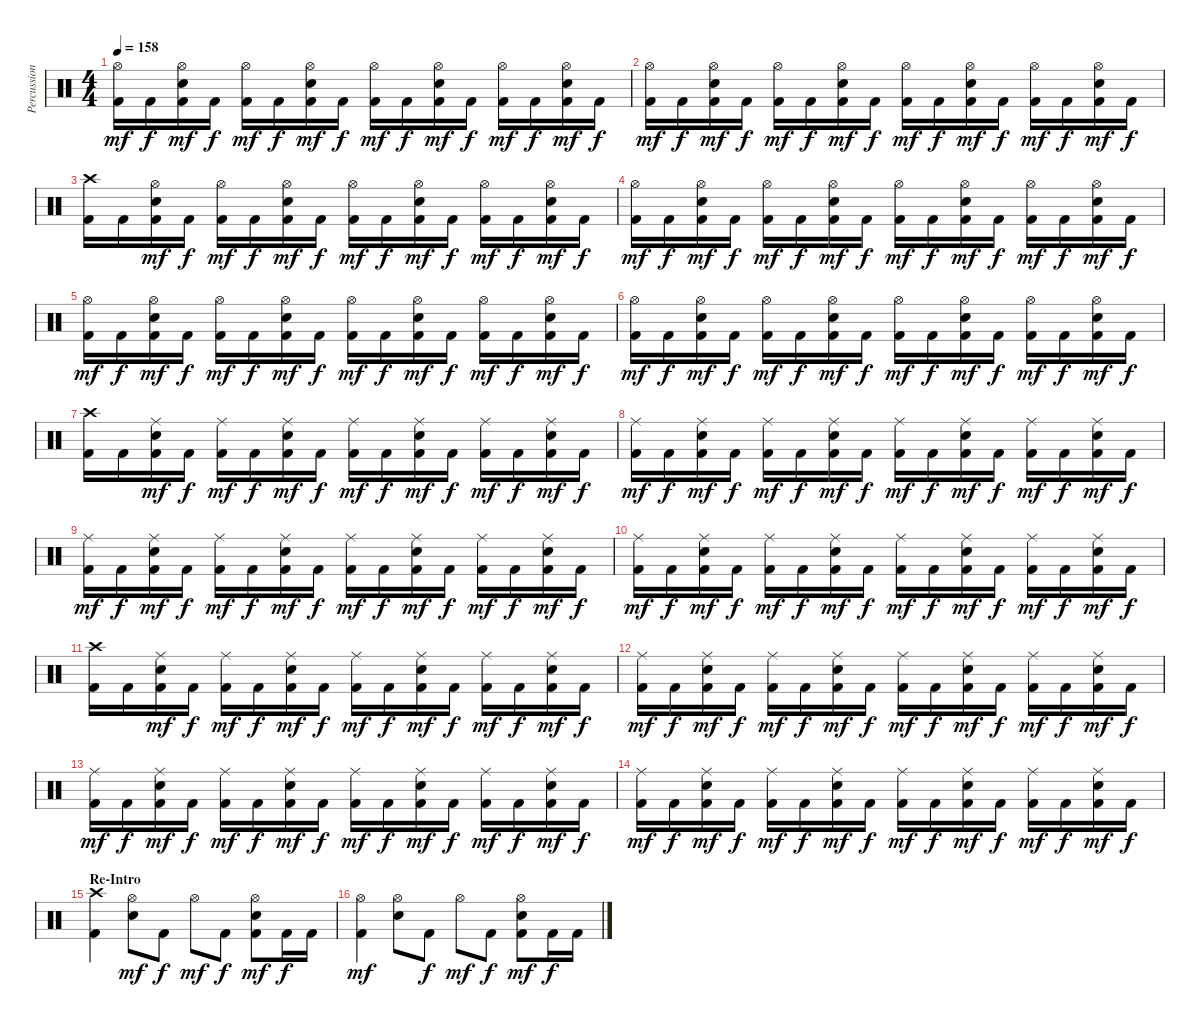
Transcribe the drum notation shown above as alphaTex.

\track ("Percussion" "Percussion") {instrument percussion}
\staff {score}
\articulation defaults
\ts (4 4)
\tempo 158
\clef neutral
\ks c
("Hi-Hat (open)" "Kick (hit) 2").16{dy mf} "Kick (hit) 2".16{dy f} ("Hi-Hat (open)" "Electric Snare (hit)" "Kick (hit) 2").16{dy mf} "Kick (hit) 2".16{dy f} ("Hi-Hat (open)" "Kick (hit) 2").16{dy mf} "Kick (hit) 2".16{dy f} ("Hi-Hat (open)" "Electric Snare (hit)" "Kick (hit) 2").16{dy mf} "Kick (hit) 2".16{dy f} ("Hi-Hat (open)" "Kick (hit) 2").16{dy mf} "Kick (hit) 2".16{dy f} ("Hi-Hat (open)" "Electric Snare (hit)" "Kick (hit) 2").16{dy mf} "Kick (hit) 2".16{dy f} ("Hi-Hat (open)" "Kick (hit) 2").16{dy mf} "Kick (hit) 2".16{dy f} ("Hi-Hat (open)" "Electric Snare (hit)" "Kick (hit) 2").16{dy mf} "Kick (hit) 2".16{dy f} |
("Hi-Hat (open)" "Kick (hit) 2").16{dy mf} "Kick (hit) 2".16{dy f} ("Hi-Hat (open)" "Electric Snare (hit)" "Kick (hit) 2").16{dy mf} "Kick (hit) 2".16{dy f} ("Hi-Hat (open)" "Kick (hit) 2").16{dy mf} "Kick (hit) 2".16{dy f} ("Hi-Hat (open)" "Electric Snare (hit)" "Kick (hit) 2").16{dy mf} "Kick (hit) 2".16{dy f} ("Hi-Hat (open)" "Kick (hit) 2").16{dy mf} "Kick (hit) 2".16{dy f} ("Hi-Hat (open)" "Electric Snare (hit)" "Kick (hit) 2").16{dy mf} "Kick (hit) 2".16{dy f} ("Hi-Hat (open)" "Kick (hit) 2").16{dy mf} "Kick (hit) 2".16{dy f} ("Hi-Hat (open)" "Electric Snare (hit)" "Kick (hit) 2").16{dy mf} "Kick (hit) 2".16{dy f} |
("Crash high (hit)" "Kick (hit) 2").16 "Kick (hit) 2".16 ("Hi-Hat (open)" "Electric Snare (hit)" "Kick (hit) 2").16{dy mf} "Kick (hit) 2".16{dy f} ("Hi-Hat (open)" "Kick (hit) 2").16{dy mf} "Kick (hit) 2".16{dy f} ("Hi-Hat (open)" "Electric Snare (hit)" "Kick (hit) 2").16{dy mf} "Kick (hit) 2".16{dy f} ("Hi-Hat (open)" "Kick (hit) 2").16{dy mf} "Kick (hit) 2".16{dy f} ("Hi-Hat (open)" "Electric Snare (hit)" "Kick (hit) 2").16{dy mf} "Kick (hit) 2".16{dy f} ("Hi-Hat (open)" "Kick (hit) 2").16{dy mf} "Kick (hit) 2".16{dy f} ("Hi-Hat (open)" "Electric Snare (hit)" "Kick (hit) 2").16{dy mf} "Kick (hit) 2".16{dy f} |
("Hi-Hat (open)" "Kick (hit) 2").16{dy mf} "Kick (hit) 2".16{dy f} ("Hi-Hat (open)" "Electric Snare (hit)" "Kick (hit) 2").16{dy mf} "Kick (hit) 2".16{dy f} ("Hi-Hat (open)" "Kick (hit) 2").16{dy mf} "Kick (hit) 2".16{dy f} ("Hi-Hat (open)" "Electric Snare (hit)" "Kick (hit) 2").16{dy mf} "Kick (hit) 2".16{dy f} ("Hi-Hat (open)" "Kick (hit) 2").16{dy mf} "Kick (hit) 2".16{dy f} ("Hi-Hat (open)" "Electric Snare (hit)" "Kick (hit) 2").16{dy mf} "Kick (hit) 2".16{dy f} ("Hi-Hat (open)" "Kick (hit) 2").16{dy mf} "Kick (hit) 2".16{dy f} ("Hi-Hat (open)" "Electric Snare (hit)" "Kick (hit) 2").16{dy mf} "Kick (hit) 2".16{dy f} |
("Hi-Hat (open)" "Kick (hit) 2").16{dy mf} "Kick (hit) 2".16{dy f} ("Hi-Hat (open)" "Electric Snare (hit)" "Kick (hit) 2").16{dy mf} "Kick (hit) 2".16{dy f} ("Hi-Hat (open)" "Kick (hit) 2").16{dy mf} "Kick (hit) 2".16{dy f} ("Hi-Hat (open)" "Electric Snare (hit)" "Kick (hit) 2").16{dy mf} "Kick (hit) 2".16{dy f} ("Hi-Hat (open)" "Kick (hit) 2").16{dy mf} "Kick (hit) 2".16{dy f} ("Hi-Hat (open)" "Electric Snare (hit)" "Kick (hit) 2").16{dy mf} "Kick (hit) 2".16{dy f} ("Hi-Hat (open)" "Kick (hit) 2").16{dy mf} "Kick (hit) 2".16{dy f} ("Hi-Hat (open)" "Electric Snare (hit)" "Kick (hit) 2").16{dy mf} "Kick (hit) 2".16{dy f} |
("Hi-Hat (open)" "Kick (hit) 2").16{dy mf} "Kick (hit) 2".16{dy f} ("Hi-Hat (open)" "Electric Snare (hit)" "Kick (hit) 2").16{dy mf} "Kick (hit) 2".16{dy f} ("Hi-Hat (open)" "Kick (hit) 2").16{dy mf} "Kick (hit) 2".16{dy f} ("Hi-Hat (open)" "Electric Snare (hit)" "Kick (hit) 2").16{dy mf} "Kick (hit) 2".16{dy f} ("Hi-Hat (open)" "Kick (hit) 2").16{dy mf} "Kick (hit) 2".16{dy f} ("Hi-Hat (open)" "Electric Snare (hit)" "Kick (hit) 2").16{dy mf} "Kick (hit) 2".16{dy f} ("Hi-Hat (open)" "Kick (hit) 2").16{dy mf} "Kick (hit) 2".16{dy f} ("Hi-Hat (open)" "Electric Snare (hit)" "Kick (hit) 2").16{dy mf} "Kick (hit) 2".16{dy f} |
("Crash high (hit)" "Kick (hit) 2").16 "Kick (hit) 2".16 ("Ride (middle)" "Electric Snare (hit)" "Kick (hit) 2").16{dy mf} "Kick (hit) 2".16{dy f} ("Ride (middle)" "Kick (hit) 2").16{dy mf} "Kick (hit) 2".16{dy f} ("Ride (middle)" "Electric Snare (hit)" "Kick (hit) 2").16{dy mf} "Kick (hit) 2".16{dy f} ("Ride (middle)" "Kick (hit) 2").16{dy mf} "Kick (hit) 2".16{dy f} ("Ride (middle)" "Electric Snare (hit)" "Kick (hit) 2").16{dy mf} "Kick (hit) 2".16{dy f} ("Ride (middle)" "Kick (hit) 2").16{dy mf} "Kick (hit) 2".16{dy f} ("Ride (middle)" "Electric Snare (hit)" "Kick (hit) 2").16{dy mf} "Kick (hit) 2".16{dy f} |
("Ride (middle)" "Kick (hit) 2").16{dy mf} "Kick (hit) 2".16{dy f} ("Ride (middle)" "Electric Snare (hit)" "Kick (hit) 2").16{dy mf} "Kick (hit) 2".16{dy f} ("Ride (middle)" "Kick (hit) 2").16{dy mf} "Kick (hit) 2".16{dy f} ("Ride (middle)" "Electric Snare (hit)" "Kick (hit) 2").16{dy mf} "Kick (hit) 2".16{dy f} ("Ride (middle)" "Kick (hit) 2").16{dy mf} "Kick (hit) 2".16{dy f} ("Ride (middle)" "Electric Snare (hit)" "Kick (hit) 2").16{dy mf} "Kick (hit) 2".16{dy f} ("Ride (middle)" "Kick (hit) 2").16{dy mf} "Kick (hit) 2".16{dy f} ("Ride (middle)" "Electric Snare (hit)" "Kick (hit) 2").16{dy mf} "Kick (hit) 2".16{dy f} |
("Ride (middle)" "Kick (hit) 2").16{dy mf} "Kick (hit) 2".16{dy f} ("Ride (middle)" "Electric Snare (hit)" "Kick (hit) 2").16{dy mf} "Kick (hit) 2".16{dy f} ("Ride (middle)" "Kick (hit) 2").16{dy mf} "Kick (hit) 2".16{dy f} ("Ride (middle)" "Electric Snare (hit)" "Kick (hit) 2").16{dy mf} "Kick (hit) 2".16{dy f} ("Ride (middle)" "Kick (hit) 2").16{dy mf} "Kick (hit) 2".16{dy f} ("Ride (middle)" "Electric Snare (hit)" "Kick (hit) 2").16{dy mf} "Kick (hit) 2".16{dy f} ("Ride (middle)" "Kick (hit) 2").16{dy mf} "Kick (hit) 2".16{dy f} ("Ride (middle)" "Electric Snare (hit)" "Kick (hit) 2").16{dy mf} "Kick (hit) 2".16{dy f} |
("Ride (middle)" "Kick (hit) 2").16{dy mf} "Kick (hit) 2".16{dy f} ("Ride (middle)" "Electric Snare (hit)" "Kick (hit) 2").16{dy mf} "Kick (hit) 2".16{dy f} ("Ride (middle)" "Kick (hit) 2").16{dy mf} "Kick (hit) 2".16{dy f} ("Ride (middle)" "Electric Snare (hit)" "Kick (hit) 2").16{dy mf} "Kick (hit) 2".16{dy f} ("Ride (middle)" "Kick (hit) 2").16{dy mf} "Kick (hit) 2".16{dy f} ("Ride (middle)" "Electric Snare (hit)" "Kick (hit) 2").16{dy mf} "Kick (hit) 2".16{dy f} ("Ride (middle)" "Kick (hit) 2").16{dy mf} "Kick (hit) 2".16{dy f} ("Ride (middle)" "Electric Snare (hit)" "Kick (hit) 2").16{dy mf} "Kick (hit) 2".16{dy f} |
("Crash high (hit)" "Kick (hit) 2").16 "Kick (hit) 2".16 ("Ride (middle)" "Electric Snare (hit)" "Kick (hit) 2").16{dy mf} "Kick (hit) 2".16{dy f} ("Ride (middle)" "Kick (hit) 2").16{dy mf} "Kick (hit) 2".16{dy f} ("Ride (middle)" "Electric Snare (hit)" "Kick (hit) 2").16{dy mf} "Kick (hit) 2".16{dy f} ("Ride (middle)" "Kick (hit) 2").16{dy mf} "Kick (hit) 2".16{dy f} ("Ride (middle)" "Electric Snare (hit)" "Kick (hit) 2").16{dy mf} "Kick (hit) 2".16{dy f} ("Ride (middle)" "Kick (hit) 2").16{dy mf} "Kick (hit) 2".16{dy f} ("Ride (middle)" "Electric Snare (hit)" "Kick (hit) 2").16{dy mf} "Kick (hit) 2".16{dy f} |
("Ride (middle)" "Kick (hit) 2").16{dy mf} "Kick (hit) 2".16{dy f} ("Ride (middle)" "Electric Snare (hit)" "Kick (hit) 2").16{dy mf} "Kick (hit) 2".16{dy f} ("Ride (middle)" "Kick (hit) 2").16{dy mf} "Kick (hit) 2".16{dy f} ("Ride (middle)" "Electric Snare (hit)" "Kick (hit) 2").16{dy mf} "Kick (hit) 2".16{dy f} ("Ride (middle)" "Kick (hit) 2").16{dy mf} "Kick (hit) 2".16{dy f} ("Ride (middle)" "Electric Snare (hit)" "Kick (hit) 2").16{dy mf} "Kick (hit) 2".16{dy f} ("Ride (middle)" "Kick (hit) 2").16{dy mf} "Kick (hit) 2".16{dy f} ("Ride (middle)" "Electric Snare (hit)" "Kick (hit) 2").16{dy mf} "Kick (hit) 2".16{dy f} |
("Ride (middle)" "Kick (hit) 2").16{dy mf} "Kick (hit) 2".16{dy f} ("Ride (middle)" "Electric Snare (hit)" "Kick (hit) 2").16{dy mf} "Kick (hit) 2".16{dy f} ("Ride (middle)" "Kick (hit) 2").16{dy mf} "Kick (hit) 2".16{dy f} ("Ride (middle)" "Electric Snare (hit)" "Kick (hit) 2").16{dy mf} "Kick (hit) 2".16{dy f} ("Ride (middle)" "Kick (hit) 2").16{dy mf} "Kick (hit) 2".16{dy f} ("Ride (middle)" "Electric Snare (hit)" "Kick (hit) 2").16{dy mf} "Kick (hit) 2".16{dy f} ("Ride (middle)" "Kick (hit) 2").16{dy mf} "Kick (hit) 2".16{dy f} ("Ride (middle)" "Electric Snare (hit)" "Kick (hit) 2").16{dy mf} "Kick (hit) 2".16{dy f} |
("Ride (middle)" "Kick (hit) 2").16{dy mf} "Kick (hit) 2".16{dy f} ("Ride (middle)" "Electric Snare (hit)" "Kick (hit) 2").16{dy mf} "Kick (hit) 2".16{dy f} ("Ride (middle)" "Kick (hit) 2").16{dy mf} "Kick (hit) 2".16{dy f} ("Ride (middle)" "Electric Snare (hit)" "Kick (hit) 2").16{dy mf} "Kick (hit) 2".16{dy f} ("Ride (middle)" "Kick (hit) 2").16{dy mf} "Kick (hit) 2".16{dy f} ("Ride (middle)" "Electric Snare (hit)" "Kick (hit) 2").16{dy mf} "Kick (hit) 2".16{dy f} ("Ride (middle)" "Kick (hit) 2").16{dy mf} "Kick (hit) 2".16{dy f} ("Ride (middle)" "Electric Snare (hit)" "Kick (hit) 2").16{dy mf} "Kick (hit) 2".16{dy f} |
\section ("" "Re-Intro")
("Crash high (hit)" "Kick (hit) 2").4 ("Hi-Hat (open)" "Electric Snare (hit)").8{dy mf} "Kick (hit) 2".8{dy f} "Hi-Hat (open)".8{dy mf} "Kick (hit) 2".8{dy f} ("Hi-Hat (open)" "Electric Snare (hit)" "Kick (hit) 2").8{dy mf} "Kick (hit) 2".16{dy f} "Kick (hit) 2".16 |
("Hi-Hat (open)" "Kick (hit) 2").4{dy mf} ("Hi-Hat (open)" "Electric Snare (hit)").8 "Kick (hit) 2".8{dy f} "Hi-Hat (open)".8{dy mf} "Kick (hit) 2".8{dy f} ("Hi-Hat (open)" "Electric Snare (hit)" "Kick (hit) 2").8{dy mf} "Kick (hit) 2".16{dy f} "Kick (hit) 2".16
